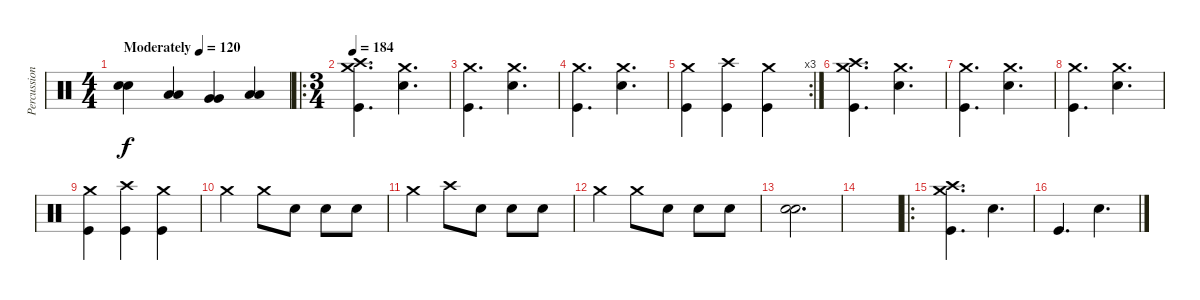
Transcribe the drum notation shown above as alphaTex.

\track ("Percussion" "Percussion") {instrument percussion}
\staff {score}
\articulation defaults
\ts (4 4)
\tempo (120 "Moderately")
\clef neutral
\ks c
("Snare (hit) 2" "Snare (hit) 2").4{dy f} ("Low Tom (hit)" "Low Tom (hit)").4 ("Very Low Tom (hit)" "Very Low Tom (hit)").4 ("Low Floor Tom (hit)" "Low Floor Tom (hit)").4 |
\ro
\ts (3 4)
\tempo 184
("Crash medium (hit)" "Crash high (hit)" "Kick (hit)").4{d} ("Crash medium (hit)" "Snare (hit) 2").4{d} |
("Crash medium (hit)" "Kick (hit)").4{d} ("Crash medium (hit)" "Snare (hit) 2").4{d} |
("Crash medium (hit)" "Kick (hit)").4{d} ("Crash medium (hit)" "Snare (hit) 2").4{d} |
\rc 3
("Crash medium (hit)" "Kick (hit)").4 ("Crash high (hit)" "Kick (hit)").4 ("Crash medium (hit)" "Kick (hit)").4 |
("Crash medium (hit)" "Crash high (hit)" "Kick (hit)").4{d} ("Crash medium (hit)" "Snare (hit) 2").4{d} |
("Crash medium (hit)" "Kick (hit)").4{d} ("Crash medium (hit)" "Snare (hit) 2").4{d} |
("Crash medium (hit)" "Kick (hit)").4{d} ("Crash medium (hit)" "Snare (hit) 2").4{d} |
("Crash medium (hit)" "Kick (hit)").4 ("Crash high (hit)" "Kick (hit)").4 ("Crash medium (hit)" "Kick (hit)").4 |
"Crash medium (hit)".4 "Crash medium (hit)".8 "Snare (hit) 2".8 "Snare (hit) 2".8 "Snare (hit) 2".8 |
"Crash medium (hit)".4 "Crash high (hit)".8 "Snare (hit) 2".8 "Snare (hit) 2".8 "Snare (hit) 2".8 |
"Crash medium (hit)".4 "Crash medium (hit)".8 "Snare (hit) 2".8 "Snare (hit) 2".8 "Snare (hit) 2".8 |
("Snare (hit) 2" "Snare (hit) 2").2{d} |
|
\ro
("Crash medium (hit)" "Crash high (hit)" "Kick (hit)").4{d} "Snare (hit) 2".4{d} |
"Kick (hit)".4{d} "Snare (hit) 2".4{d}
